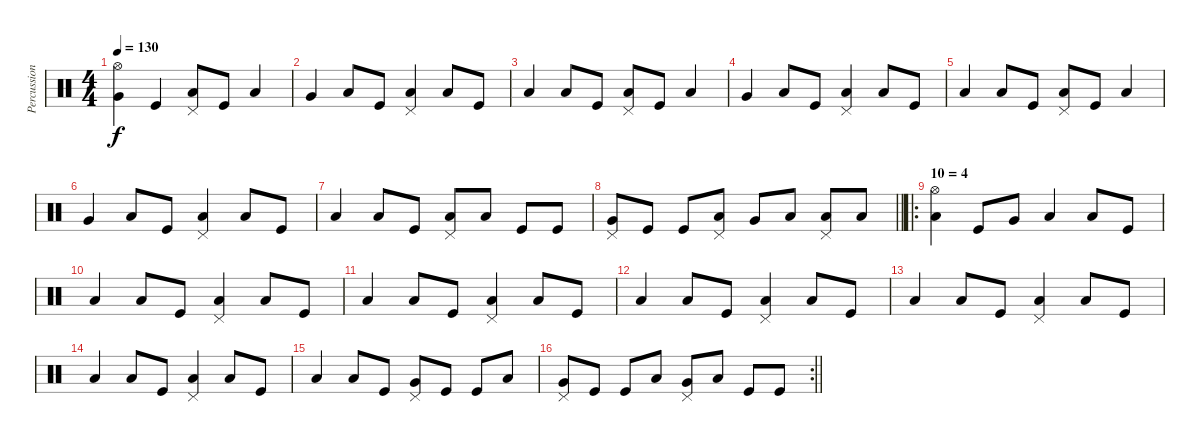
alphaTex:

\track ("Percussioni" "Percussion") {instrument percussion}
\staff {score}
\articulation defaults
\ts (4 4)
\tempo 130
\clef neutral
\ks c
("Hi-Hat (open)" "Very Low Tom (hit)").4{dy f} "Kick (hit)".4 ("Low Floor Tom (hit)" "Pedal Hi-Hat (hit)").8 "Kick (hit)".8 "Low Floor Tom (hit)".4 |
"Very Low Tom (hit)".4 "Low Floor Tom (hit)".8 "Kick (hit)".8 ("Low Floor Tom (hit)" "Pedal Hi-Hat (hit)").4 "Low Floor Tom (hit)".8 "Kick (hit)".8 |
"Low Floor Tom (hit)".4 "Low Floor Tom (hit)".8 "Kick (hit)".8 ("Low Floor Tom (hit)" "Pedal Hi-Hat (hit)").8 "Kick (hit)".8 "Low Floor Tom (hit)".4 |
"Very Low Tom (hit)".4 "Low Floor Tom (hit)".8 "Kick (hit)".8 ("Low Floor Tom (hit)" "Pedal Hi-Hat (hit)").4 "Low Floor Tom (hit)".8 "Kick (hit)".8 |
"Low Floor Tom (hit)".4 "Low Floor Tom (hit)".8 "Kick (hit)".8 ("Low Floor Tom (hit)" "Pedal Hi-Hat (hit)").8 "Kick (hit)".8 "Low Floor Tom (hit)".4 |
"Very Low Tom (hit)".4 "Low Floor Tom (hit)".8 "Kick (hit)".8 ("Low Floor Tom (hit)" "Pedal Hi-Hat (hit)").4 "Low Floor Tom (hit)".8 "Kick (hit)".8 |
"Low Floor Tom (hit)".4 "Low Floor Tom (hit)".8 "Kick (hit)".8 ("Low Floor Tom (hit)" "Pedal Hi-Hat (hit)").8 "Low Floor Tom (hit)".8 "Kick (hit)".8 "Kick (hit)".8 |
\barLineRight lightlight
("Very Low Tom (hit)" "Pedal Hi-Hat (hit)").8 "Kick (hit)".8 "Kick (hit)".8 ("Low Floor Tom (hit)" "Pedal Hi-Hat (hit)").8 "Very Low Tom (hit)".8 "Low Floor Tom (hit)".8 ("Low Floor Tom (hit)" "Pedal Hi-Hat (hit)").8 "Low Floor Tom (hit)".8 |
\ro
\section ("" "10 = 4")
("Hi-Hat (open)" "Low Tom (hit)").4 "Kick (hit)".8 "Very Low Tom (hit)".8 "Low Floor Tom (hit)".4 "Low Floor Tom (hit)".8 "Kick (hit)".8 |
"Low Floor Tom (hit)".4 "Low Floor Tom (hit)".8 "Kick (hit)".8 ("Low Floor Tom (hit)" "Pedal Hi-Hat (hit)").4 "Low Floor Tom (hit)".8 "Kick (hit)".8 |
"Low Floor Tom (hit)".4 "Low Floor Tom (hit)".8 "Kick (hit)".8 ("Low Floor Tom (hit)" "Pedal Hi-Hat (hit)").4 "Low Floor Tom (hit)".8 "Kick (hit)".8 |
"Low Floor Tom (hit)".4 "Low Floor Tom (hit)".8 "Kick (hit)".8 ("Low Floor Tom (hit)" "Pedal Hi-Hat (hit)").4 "Low Floor Tom (hit)".8 "Kick (hit)".8 |
"Low Floor Tom (hit)".4 "Low Floor Tom (hit)".8 "Kick (hit)".8 ("Low Floor Tom (hit)" "Pedal Hi-Hat (hit)").4 "Low Floor Tom (hit)".8 "Kick (hit)".8 |
"Low Floor Tom (hit)".4 "Low Floor Tom (hit)".8 "Kick (hit)".8 ("Low Floor Tom (hit)" "Pedal Hi-Hat (hit)").4 "Low Floor Tom (hit)".8 "Kick (hit)".8 |
"Low Floor Tom (hit)".4 "Low Floor Tom (hit)".8 "Kick (hit)".8 ("Very Low Tom (hit)" "Pedal Hi-Hat (hit)").8 "Kick (hit)".8 "Kick (hit)".8 "Low Floor Tom (hit)".8 |
\rc 2
\barLineRight lightlight
("Very Low Tom (hit)" "Pedal Hi-Hat (hit)").8 "Kick (hit)".8 "Kick (hit)".8 "Low Floor Tom (hit)".8 ("Very Low Tom (hit)" "Pedal Hi-Hat (hit)").8 "Low Floor Tom (hit)".8 "Kick (hit)".8 "Kick (hit)".8
